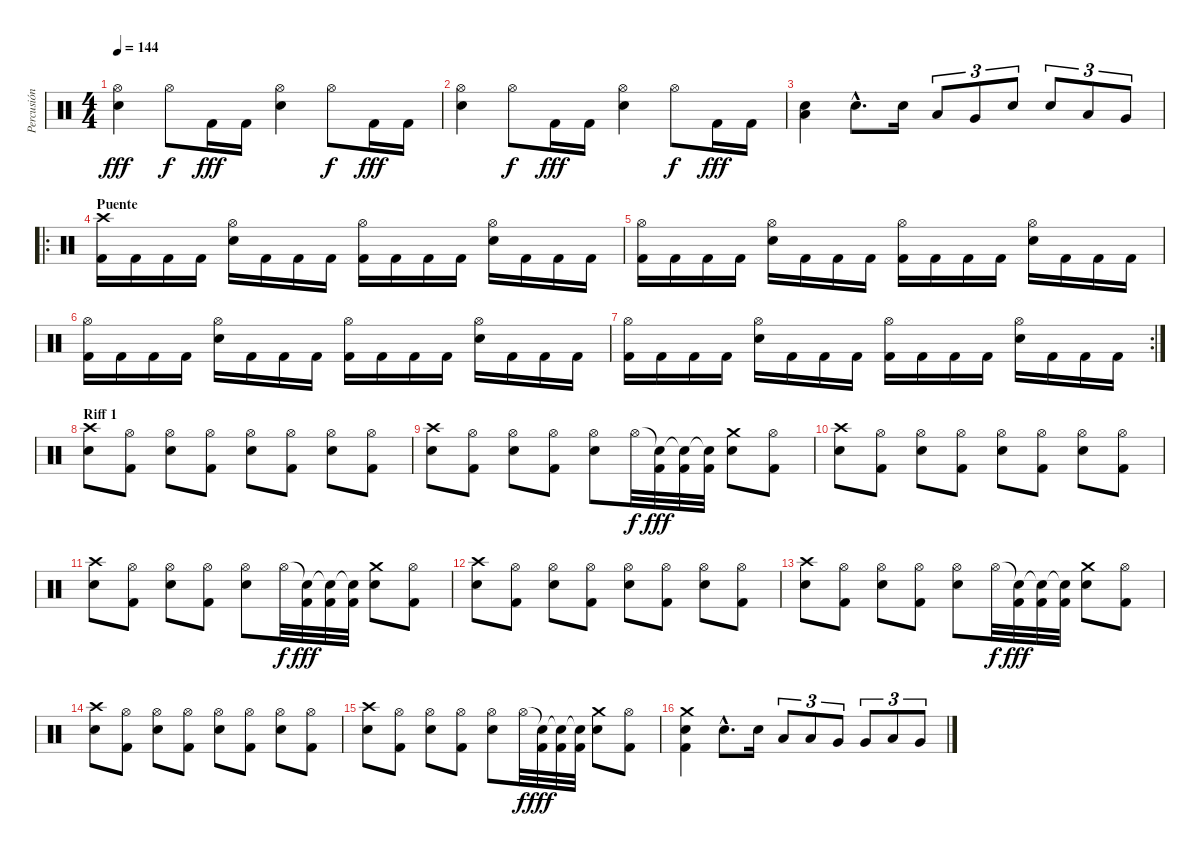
\track ("Percusión" "Percusión") {instrument percussion}
\staff {score}
\articulation defaults
\ts (4 4)
\tempo 144
\clef neutral
\ks c
("Hi-Hat (open)" "Snare (hit) 2").4{dy fff} "Hi-Hat (open)".8{dy f} "Kick (hit) 2".16{dy fff} "Kick (hit) 2".16 ("Hi-Hat (open)" "Snare (hit) 2").4 "Hi-Hat (open)".8{dy f} "Kick (hit) 2".16{dy fff} "Kick (hit) 2".16 |
("Hi-Hat (open)" "Snare (hit) 2").4 "Hi-Hat (open)".8{dy f} "Kick (hit) 2".16{dy fff} "Kick (hit) 2".16 ("Hi-Hat (open)" "Snare (hit) 2").4 "Hi-Hat (open)".8{dy f} "Kick (hit) 2".16{dy fff} "Kick (hit) 2".16 |
("Low Tom (hit)" "Snare (hit) 2").4 "Snare (hit) 2"{hac}.8{d} "Snare (hit) 2".16 "Low Tom (hit)".8{tu (3 2)} "Very Low Tom (hit)".8{tu (3 2)} "Snare (hit) 2".8{tu (3 2)} "Snare (hit) 2".8{tu (3 2)} "Low Tom (hit)".8{tu (3 2)} "Very Low Tom (hit)".8{tu (3 2)} |
\ro
\section ("" "Puente")
("Crash high (hit)" "Kick (hit) 2").16 "Kick (hit) 2".16 "Kick (hit) 2".16 "Kick (hit) 2".16 ("Hi-Hat (open)" "Electric Snare (hit)").16 "Kick (hit) 2".16 "Kick (hit) 2".16 "Kick (hit) 2".16 ("Hi-Hat (open)" "Kick (hit) 2").16 "Kick (hit) 2".16 "Kick (hit) 2".16 "Kick (hit) 2".16 ("Hi-Hat (open)" "Electric Snare (hit)").16 "Kick (hit) 2".16 "Kick (hit) 2".16 "Kick (hit) 2".16 |
("Hi-Hat (open)" "Kick (hit) 2").16 "Kick (hit) 2".16 "Kick (hit) 2".16 "Kick (hit) 2".16 ("Hi-Hat (open)" "Electric Snare (hit)").16 "Kick (hit) 2".16 "Kick (hit) 2".16 "Kick (hit) 2".16 ("Hi-Hat (open)" "Kick (hit) 2").16 "Kick (hit) 2".16 "Kick (hit) 2".16 "Kick (hit) 2".16 ("Hi-Hat (open)" "Electric Snare (hit)").16 "Kick (hit) 2".16 "Kick (hit) 2".16 "Kick (hit) 2".16 |
("Hi-Hat (open)" "Kick (hit) 2").16 "Kick (hit) 2".16 "Kick (hit) 2".16 "Kick (hit) 2".16 ("Hi-Hat (open)" "Electric Snare (hit)").16 "Kick (hit) 2".16 "Kick (hit) 2".16 "Kick (hit) 2".16 ("Hi-Hat (open)" "Kick (hit) 2").16 "Kick (hit) 2".16 "Kick (hit) 2".16 "Kick (hit) 2".16 ("Hi-Hat (open)" "Electric Snare (hit)").16 "Kick (hit) 2".16 "Kick (hit) 2".16 "Kick (hit) 2".16 |
\rc 2
("Hi-Hat (open)" "Kick (hit) 2").16 "Kick (hit) 2".16 "Kick (hit) 2".16 "Kick (hit) 2".16 ("Hi-Hat (open)" "Electric Snare (hit)").16 "Kick (hit) 2".16 "Kick (hit) 2".16 "Kick (hit) 2".16 ("Hi-Hat (open)" "Kick (hit) 2").16 "Kick (hit) 2".16 "Kick (hit) 2".16 "Kick (hit) 2".16 ("Hi-Hat (open)" "Electric Snare (hit)").16 "Kick (hit) 2".16 "Kick (hit) 2".16 "Kick (hit) 2".16 |
\section ("" "Riff 1")
("Crash high (hit)" "Snare (hit) 2").8 ("Hi-Hat (open)" "Kick (hit) 2").8 ("Hi-Hat (open)" "Snare (hit) 2").8 ("Hi-Hat (open)" "Kick (hit) 2").8 ("Hi-Hat (open)" "Snare (hit) 2").8 ("Hi-Hat (open)" "Kick (hit) 2").8 ("Hi-Hat (open)" "Snare (hit) 2").8 ("Hi-Hat (open)" "Kick (hit) 2").8 |
("Crash high (hit)" "Snare (hit) 2").8 ("Hi-Hat (open)" "Kick (hit) 2").8 ("Hi-Hat (open)" "Snare (hit) 2").8 ("Hi-Hat (open)" "Kick (hit) 2").8 ("Hi-Hat (open)" "Snare (hit) 2").8 "Hi-Hat (open)".32{dy f} ("Snare (hit)"{t} "Kick (hit) 2").32{dy fff} ("Snare (hit)"{t} "Kick (hit) 2").32 ("Snare (hit)"{t} "Kick (hit) 2").32 ("Crash medium (hit)" "Snare (hit) 2").8 ("Hi-Hat (open)" "Kick (hit) 2").8 |
("Crash high (hit)" "Snare (hit) 2").8 ("Hi-Hat (open)" "Kick (hit) 2").8 ("Hi-Hat (open)" "Snare (hit) 2").8 ("Hi-Hat (open)" "Kick (hit) 2").8 ("Hi-Hat (open)" "Snare (hit) 2").8 ("Hi-Hat (open)" "Kick (hit) 2").8 ("Hi-Hat (open)" "Snare (hit) 2").8 ("Hi-Hat (open)" "Kick (hit) 2").8 |
("Crash high (hit)" "Snare (hit) 2").8 ("Hi-Hat (open)" "Kick (hit) 2").8 ("Hi-Hat (open)" "Snare (hit) 2").8 ("Hi-Hat (open)" "Kick (hit) 2").8 ("Hi-Hat (open)" "Snare (hit) 2").8 "Hi-Hat (open)".32{dy f} ("Snare (hit)"{t} "Kick (hit) 2").32{dy fff} ("Snare (hit)"{t} "Kick (hit) 2").32 ("Snare (hit)"{t} "Kick (hit) 2").32 ("Crash medium (hit)" "Snare (hit) 2").8 ("Hi-Hat (open)" "Kick (hit) 2").8 |
("Crash high (hit)" "Snare (hit) 2").8 ("Hi-Hat (open)" "Kick (hit) 2").8 ("Hi-Hat (open)" "Snare (hit) 2").8 ("Hi-Hat (open)" "Kick (hit) 2").8 ("Hi-Hat (open)" "Snare (hit) 2").8 ("Hi-Hat (open)" "Kick (hit) 2").8 ("Hi-Hat (open)" "Snare (hit) 2").8 ("Hi-Hat (open)" "Kick (hit) 2").8 |
("Crash high (hit)" "Snare (hit) 2").8 ("Hi-Hat (open)" "Kick (hit) 2").8 ("Hi-Hat (open)" "Snare (hit) 2").8 ("Hi-Hat (open)" "Kick (hit) 2").8 ("Hi-Hat (open)" "Snare (hit) 2").8 "Hi-Hat (open)".32{dy f} ("Snare (hit)"{t} "Kick (hit) 2").32{dy fff} ("Snare (hit)"{t} "Kick (hit) 2").32 ("Snare (hit)"{t} "Kick (hit) 2").32 ("Crash medium (hit)" "Snare (hit) 2").8 ("Hi-Hat (open)" "Kick (hit) 2").8 |
("Crash high (hit)" "Snare (hit) 2").8 ("Hi-Hat (open)" "Kick (hit) 2").8 ("Hi-Hat (open)" "Snare (hit) 2").8 ("Hi-Hat (open)" "Kick (hit) 2").8 ("Hi-Hat (open)" "Snare (hit) 2").8 ("Hi-Hat (open)" "Kick (hit) 2").8 ("Hi-Hat (open)" "Snare (hit) 2").8 ("Hi-Hat (open)" "Kick (hit) 2").8 |
("Crash high (hit)" "Snare (hit) 2").8 ("Hi-Hat (open)" "Kick (hit) 2").8 ("Hi-Hat (open)" "Snare (hit) 2").8 ("Hi-Hat (open)" "Kick (hit) 2").8 ("Hi-Hat (open)" "Snare (hit) 2").8 "Hi-Hat (open)".32{dy f} ("Snare (hit)"{t} "Kick (hit) 2").32{dy fff} ("Snare (hit)"{t} "Kick (hit) 2").32 ("Snare (hit)"{t} "Kick (hit) 2").32 ("Crash medium (hit)" "Snare (hit) 2").8 ("Hi-Hat (open)" "Kick (hit) 2").8 |
("Crash medium (hit)" "Snare (hit) 2" "Kick (hit) 2").4 "Snare (hit) 2"{hac}.8{d} "Snare (hit) 2".16 "Low Tom (hit)".8{tu (3 2)} "Low Tom (hit)".8{tu (3 2)} "Very Low Tom (hit)".8{tu (3 2)} "Very Low Tom (hit)".8{tu (3 2)} "Low Tom (hit)".8{tu (3 2)} "Very Low Tom (hit)".8{tu (3 2)}
